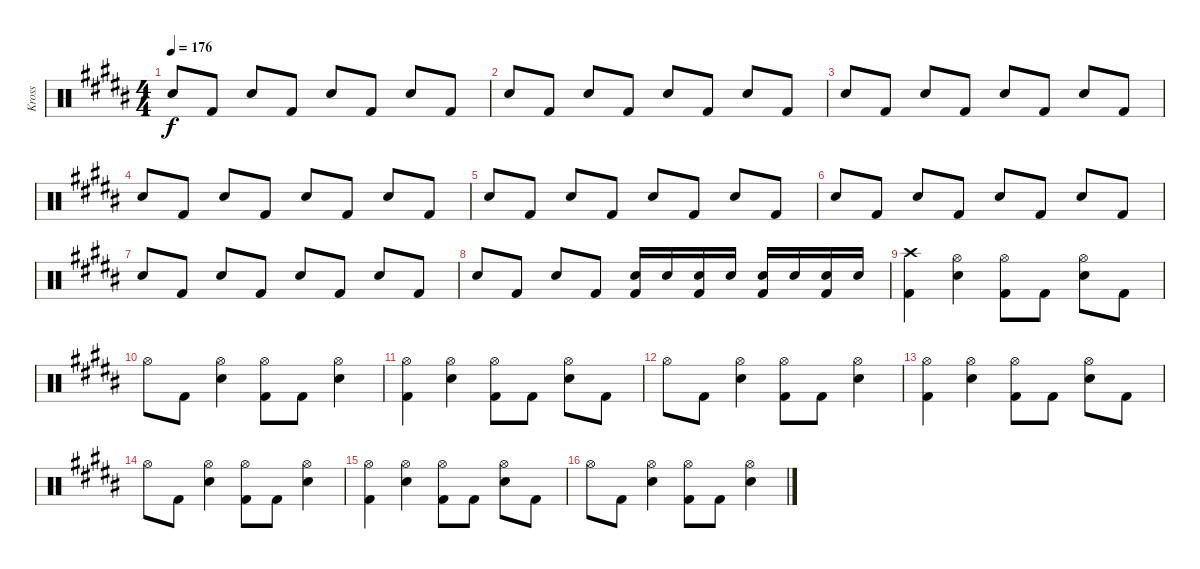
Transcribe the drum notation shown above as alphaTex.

\track ("Kross" "Kross") {instrument percussion}
\staff {score}
\articulation defaults
\ts (4 4)
\tempo 176
\clef neutral
\ks b "Electric Snare (hit)".8{dy f} "Kick (hit) 2".8 "Electric Snare (hit)".8 "Kick (hit) 2".8 "Electric Snare (hit)".8 "Kick (hit) 2".8 "Electric Snare (hit)".8 "Kick (hit) 2".8
|
"Electric Snare (hit)".8 "Kick (hit) 2".8 "Electric Snare (hit)".8 "Kick (hit) 2".8 "Electric Snare (hit)".8 "Kick (hit) 2".8 "Electric Snare (hit)".8 "Kick (hit) 2".8 |
"Electric Snare (hit)".8 "Kick (hit) 2".8 "Electric Snare (hit)".8 "Kick (hit) 2".8 "Electric Snare (hit)".8 "Kick (hit) 2".8 "Electric Snare (hit)".8 "Kick (hit) 2".8 |
"Electric Snare (hit)".8 "Kick (hit) 2".8 "Electric Snare (hit)".8 "Kick (hit) 2".8 "Electric Snare (hit)".8 "Kick (hit) 2".8 "Electric Snare (hit)".8 "Kick (hit) 2".8 |
"Electric Snare (hit)".8 "Kick (hit) 2".8 "Electric Snare (hit)".8 "Kick (hit) 2".8 "Electric Snare (hit)".8 "Kick (hit) 2".8 "Electric Snare (hit)".8 "Kick (hit) 2".8 |
"Electric Snare (hit)".8 "Kick (hit) 2".8 "Electric Snare (hit)".8 "Kick (hit) 2".8 "Electric Snare (hit)".8 "Kick (hit) 2".8 "Electric Snare (hit)".8 "Kick (hit) 2".8 |
"Electric Snare (hit)".8 "Kick (hit) 2".8 "Electric Snare (hit)".8 "Kick (hit) 2".8 "Electric Snare (hit)".8 "Kick (hit) 2".8 "Electric Snare (hit)".8 "Kick (hit) 2".8 |
"Electric Snare (hit)".8 "Kick (hit) 2".8 "Electric Snare (hit)".8 "Kick (hit) 2".8 ("Electric Snare (hit)" "Kick (hit) 2").16 "Electric Snare (hit)".16 ("Electric Snare (hit)" "Kick (hit) 2").16 "Electric Snare (hit)".16 ("Electric Snare (hit)" "Kick (hit) 2").16 "Electric Snare (hit)".16 ("Electric Snare (hit)" "Kick (hit) 2").16 "Electric Snare (hit)".16 |
("Crash high (hit)" "Kick (hit) 2").4 ("Hi-Hat (open)" "Electric Snare (hit)").4 ("Hi-Hat (open)" "Kick (hit) 2").8 "Kick (hit) 2".8 ("Hi-Hat (open)" "Electric Snare (hit)").8 "Kick (hit) 2".8 |
"Hi-Hat (open)".8 "Kick (hit) 2".8 ("Hi-Hat (open)" "Electric Snare (hit)").4 ("Hi-Hat (open)" "Kick (hit) 2").8 "Kick (hit) 2".8 ("Hi-Hat (open)" "Electric Snare (hit)").4 |
("Hi-Hat (open)" "Kick (hit) 2").4 ("Hi-Hat (open)" "Electric Snare (hit)").4 ("Hi-Hat (open)" "Kick (hit) 2").8 "Kick (hit) 2".8 ("Hi-Hat (open)" "Electric Snare (hit)").8 "Kick (hit) 2".8 |
"Hi-Hat (open)".8 "Kick (hit) 2".8 ("Hi-Hat (open)" "Electric Snare (hit)").4 ("Hi-Hat (open)" "Kick (hit) 2").8 "Kick (hit) 2".8 ("Hi-Hat (open)" "Electric Snare (hit)").4 |
("Hi-Hat (open)" "Kick (hit) 2").4 ("Hi-Hat (open)" "Electric Snare (hit)").4 ("Hi-Hat (open)" "Kick (hit) 2").8 "Kick (hit) 2".8 ("Hi-Hat (open)" "Electric Snare (hit)").8 "Kick (hit) 2".8 |
"Hi-Hat (open)".8 "Kick (hit) 2".8 ("Hi-Hat (open)" "Electric Snare (hit)").4 ("Hi-Hat (open)" "Kick (hit) 2").8 "Kick (hit) 2".8 ("Hi-Hat (open)" "Electric Snare (hit)").4 |
("Hi-Hat (open)" "Kick (hit) 2").4 ("Hi-Hat (open)" "Electric Snare (hit)").4 ("Hi-Hat (open)" "Kick (hit) 2").8 "Kick (hit) 2".8 ("Hi-Hat (open)" "Electric Snare (hit)").8 "Kick (hit) 2".8 |
"Hi-Hat (open)".8 "Kick (hit) 2".8 ("Hi-Hat (open)" "Electric Snare (hit)").4 ("Hi-Hat (open)" "Kick (hit) 2").8 "Kick (hit) 2".8 ("Hi-Hat (open)" "Electric Snare (hit)").4
